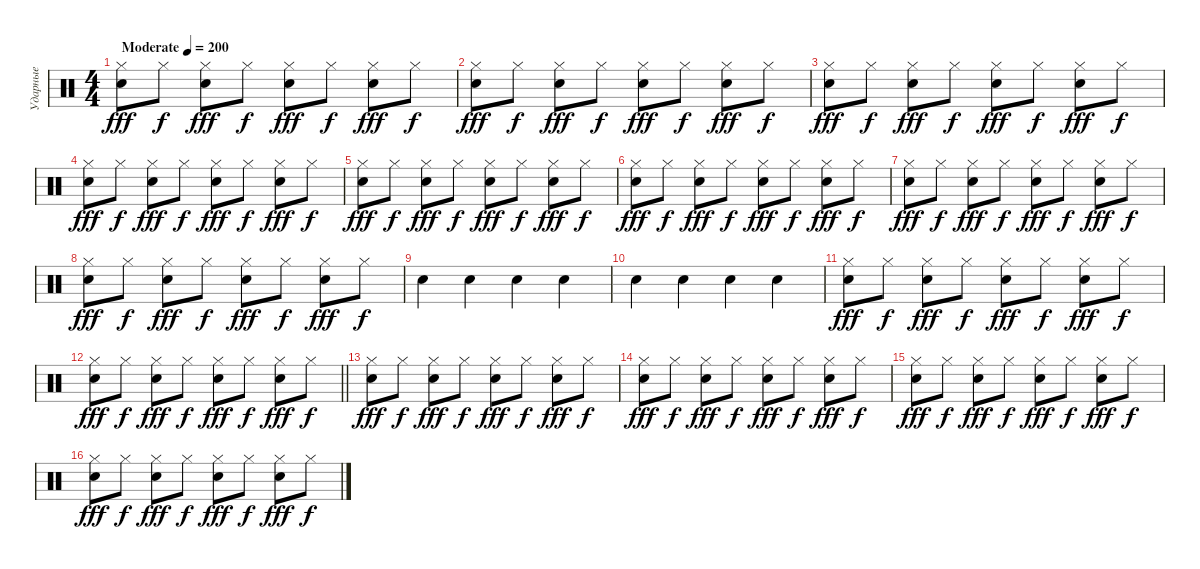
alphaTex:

\track ("Ударные" "Ударные") {instrument percussion}
\staff {score}
\articulation defaults
\ts (4 4)
\tempo (200 "Moderate")
\clef neutral
\ks c
("Hi-Hat (closed)" "Hand Clap (hit)").8{dy fff} "Hi-Hat (closed)".8{dy f} ("Hi-Hat (closed)" "Hand Clap (hit)").8{dy fff} "Hi-Hat (closed)".8{dy f} ("Hi-Hat (closed)" "Hand Clap (hit)").8{dy fff} "Hi-Hat (closed)".8{dy f} ("Hi-Hat (closed)" "Hand Clap (hit)").8{dy fff} "Hi-Hat (closed)".8{dy f} |
("Hi-Hat (closed)" "Hand Clap (hit)").8{dy fff} "Hi-Hat (closed)".8{dy f} ("Hi-Hat (closed)" "Hand Clap (hit)").8{dy fff} "Hi-Hat (closed)".8{dy f} ("Hi-Hat (closed)" "Hand Clap (hit)").8{dy fff} "Hi-Hat (closed)".8{dy f} ("Hi-Hat (closed)" "Hand Clap (hit)").8{dy fff} "Hi-Hat (closed)".8{dy f} |
("Hi-Hat (closed)" "Hand Clap (hit)").8{dy fff} "Hi-Hat (closed)".8{dy f} ("Hi-Hat (closed)" "Hand Clap (hit)").8{dy fff} "Hi-Hat (closed)".8{dy f} ("Hi-Hat (closed)" "Hand Clap (hit)").8{dy fff} "Hi-Hat (closed)".8{dy f} ("Hi-Hat (closed)" "Hand Clap (hit)").8{dy fff} "Hi-Hat (closed)".8{dy f} |
("Hi-Hat (closed)" "Hand Clap (hit)").8{dy fff} "Hi-Hat (closed)".8{dy f} ("Hi-Hat (closed)" "Hand Clap (hit)").8{dy fff} "Hi-Hat (closed)".8{dy f} ("Hi-Hat (closed)" "Hand Clap (hit)").8{dy fff} "Hi-Hat (closed)".8{dy f} ("Hi-Hat (closed)" "Hand Clap (hit)").8{dy fff} "Hi-Hat (closed)".8{dy f} |
("Hi-Hat (closed)" "Hand Clap (hit)").8{dy fff} "Hi-Hat (closed)".8{dy f} ("Hi-Hat (closed)" "Hand Clap (hit)").8{dy fff} "Hi-Hat (closed)".8{dy f} ("Hi-Hat (closed)" "Hand Clap (hit)").8{dy fff} "Hi-Hat (closed)".8{dy f} ("Hi-Hat (closed)" "Hand Clap (hit)").8{dy fff} "Hi-Hat (closed)".8{dy f} |
("Hi-Hat (closed)" "Hand Clap (hit)").8{dy fff} "Hi-Hat (closed)".8{dy f} ("Hi-Hat (closed)" "Hand Clap (hit)").8{dy fff} "Hi-Hat (closed)".8{dy f} ("Hi-Hat (closed)" "Hand Clap (hit)").8{dy fff} "Hi-Hat (closed)".8{dy f} ("Hi-Hat (closed)" "Hand Clap (hit)").8{dy fff} "Hi-Hat (closed)".8{dy f} |
("Hi-Hat (closed)" "Hand Clap (hit)").8{dy fff} "Hi-Hat (closed)".8{dy f} ("Hi-Hat (closed)" "Hand Clap (hit)").8{dy fff} "Hi-Hat (closed)".8{dy f} ("Hi-Hat (closed)" "Hand Clap (hit)").8{dy fff} "Hi-Hat (closed)".8{dy f} ("Hi-Hat (closed)" "Hand Clap (hit)").8{dy fff} "Hi-Hat (closed)".8{dy f} |
("Hi-Hat (closed)" "Hand Clap (hit)").8{dy fff} "Hi-Hat (closed)".8{dy f} ("Hi-Hat (closed)" "Hand Clap (hit)").8{dy fff} "Hi-Hat (closed)".8{dy f} ("Hi-Hat (closed)" "Hand Clap (hit)").8{dy fff} "Hi-Hat (closed)".8{dy f} ("Hi-Hat (closed)" "Hand Clap (hit)").8{dy fff} "Hi-Hat (closed)".8{dy f} |
"Hand Clap (hit)".4 "Hand Clap (hit)".4 "Hand Clap (hit)".4 "Hand Clap (hit)".4 |
"Hand Clap (hit)".4 "Hand Clap (hit)".4 "Hand Clap (hit)".4 "Hand Clap (hit)".4 |
("Hi-Hat (closed)" "Hand Clap (hit)").8{dy fff} "Hi-Hat (closed)".8{dy f} ("Hi-Hat (closed)" "Hand Clap (hit)").8{dy fff} "Hi-Hat (closed)".8{dy f} ("Hi-Hat (closed)" "Hand Clap (hit)").8{dy fff} "Hi-Hat (closed)".8{dy f} ("Hi-Hat (closed)" "Hand Clap (hit)").8{dy fff} "Hi-Hat (closed)".8{dy f} |
\barLineRight lightlight
("Hi-Hat (closed)" "Hand Clap (hit)").8{dy fff} "Hi-Hat (closed)".8{dy f} ("Hi-Hat (closed)" "Hand Clap (hit)").8{dy fff} "Hi-Hat (closed)".8{dy f} ("Hi-Hat (closed)" "Hand Clap (hit)").8{dy fff} "Hi-Hat (closed)".8{dy f} ("Hi-Hat (closed)" "Hand Clap (hit)").8{dy fff} "Hi-Hat (closed)".8{dy f} |
("Hi-Hat (closed)" "Hand Clap (hit)").8{dy fff} "Hi-Hat (closed)".8{dy f} ("Hi-Hat (closed)" "Hand Clap (hit)").8{dy fff} "Hi-Hat (closed)".8{dy f} ("Hi-Hat (closed)" "Hand Clap (hit)").8{dy fff} "Hi-Hat (closed)".8{dy f} ("Hi-Hat (closed)" "Hand Clap (hit)").8{dy fff} "Hi-Hat (closed)".8{dy f} |
("Hi-Hat (closed)" "Hand Clap (hit)").8{dy fff} "Hi-Hat (closed)".8{dy f} ("Hi-Hat (closed)" "Hand Clap (hit)").8{dy fff} "Hi-Hat (closed)".8{dy f} ("Hi-Hat (closed)" "Hand Clap (hit)").8{dy fff} "Hi-Hat (closed)".8{dy f} ("Hi-Hat (closed)" "Hand Clap (hit)").8{dy fff} "Hi-Hat (closed)".8{dy f} |
("Hi-Hat (closed)" "Hand Clap (hit)").8{dy fff} "Hi-Hat (closed)".8{dy f} ("Hi-Hat (closed)" "Hand Clap (hit)").8{dy fff} "Hi-Hat (closed)".8{dy f} ("Hi-Hat (closed)" "Hand Clap (hit)").8{dy fff} "Hi-Hat (closed)".8{dy f} ("Hi-Hat (closed)" "Hand Clap (hit)").8{dy fff} "Hi-Hat (closed)".8{dy f} |
("Hi-Hat (closed)" "Hand Clap (hit)").8{dy fff} "Hi-Hat (closed)".8{dy f} ("Hi-Hat (closed)" "Hand Clap (hit)").8{dy fff} "Hi-Hat (closed)".8{dy f} ("Hi-Hat (closed)" "Hand Clap (hit)").8{dy fff} "Hi-Hat (closed)".8{dy f} ("Hi-Hat (closed)" "Hand Clap (hit)").8{dy fff} "Hi-Hat (closed)".8{dy f}
